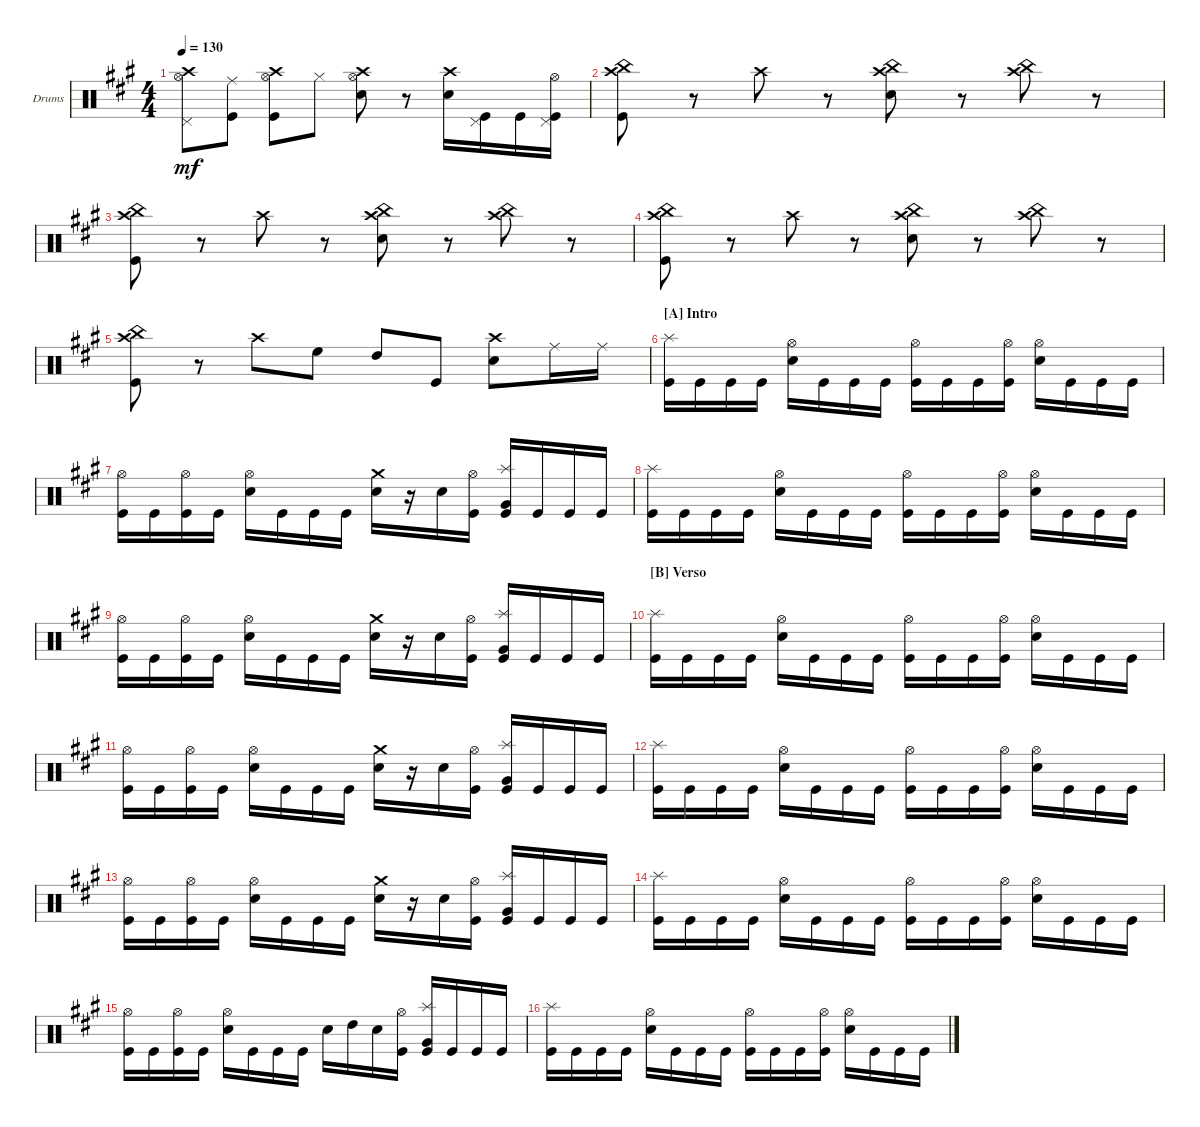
\defaultSystemsLayout 4
\bracketExtendMode groupsimilarinstruments
\firstSystemTrackNameOrientation horizontal
\otherSystemsTrackNameOrientation horizontal
\track ("Bateria" "Drums") {instrument percussion}
\staff {score}
\articulation defaults
\ts (4 4)
\tempo 130
\clef neutral
\ks a
("Pedal Hi-Hat (hit)" "Hi-Hat (open)" "Crash high (hit)").8{dy mf} ("Kick (hit)" "Ride (middle)").8 ("Kick (hit)" "Hi-Hat (open)" "Crash high (hit)").8 "Hi-Hat (closed)".8 ("Snare (hit) 2" "Hi-Hat (open)" "Crash high (hit)").8 r.8 ("Crash high (hit)" "Snare (hit) 2").16 ("Kick (hit)" "Pedal Hi-Hat (hit)").16 "Kick (hit)".16 ("Hi-Hat (open)" "Kick (hit)" "Pedal Hi-Hat (hit)").16 |
("China (hit)" "Kick (hit)" "Crash high (hit)").8 r.8 "Crash high (hit)".8 r.8 ("China (hit)" "Crash high (hit)" "Snare (hit) 2").8 r.8 ("China (hit)" "Crash high (hit)").8 r.8 |
("China (hit)" "Kick (hit)" "Crash high (hit)").8 r.8 "Crash high (hit)".8 r.8 ("China (hit)" "Crash high (hit)" "Snare (hit) 2").8 r.8 ("China (hit)" "Crash high (hit)").8 r.8 |
("China (hit)" "Kick (hit)" "Crash high (hit)").8 r.8 "Crash high (hit)".8 r.8 ("China (hit)" "Crash high (hit)" "Snare (hit) 2").8 r.8 ("China (hit)" "Crash high (hit)").8 r.8 |
("China (hit)" "Kick (hit)" "Crash high (hit)").8 r.8 "Crash high (hit)".8 "High Floor Tom (hit)".8 "High Tom (hit)".8 "Kick (hit)".8 ("Snare (hit) 2" "Crash high (hit)").8 "Ride (middle)".16 "Ride (middle)".16 |
\section ("A" "Intro")
("Kick (hit)" "Splash (hit)").16 "Kick (hit)".16 "Kick (hit)".16 "Kick (hit)".16 ("Snare (hit) 2" "Hi-Hat (open)").16 "Kick (hit)".16 "Kick (hit)".16 "Kick (hit)".16 ("Kick (hit)" "Hi-Hat (open)").16 "Kick (hit)".16 "Kick (hit)".16 ("Kick (hit)" "Hi-Hat (open)").16 ("Snare (hit) 2" "Hi-Hat (open)").16 "Kick (hit)".16 "Kick (hit)".16 "Kick (hit)".16 |
("Kick (hit)" "Hi-Hat (open)").16 "Kick (hit)".16 ("Kick (hit)" "Hi-Hat (open)").16 "Kick (hit)".16 ("Snare (hit) 2" "Hi-Hat (open)").16 "Kick (hit)".16 "Kick (hit)".16 "Kick (hit)".16 ("Snare (hit) 2" "Crash medium (hit)").16 r.16 "Snare (hit) 2".16 ("Kick (hit)" "Hi-Hat (open)").16 ("Very Low Tom (hit)" "Splash (hit)" "Kick (hit)").16 "Kick (hit)".16 "Kick (hit)".16 "Kick (hit)".16 |
("Kick (hit)" "Splash (hit)").16 "Kick (hit)".16 "Kick (hit)".16 "Kick (hit)".16 ("Snare (hit) 2" "Hi-Hat (open)").16 "Kick (hit)".16 "Kick (hit)".16 "Kick (hit)".16 ("Kick (hit)" "Hi-Hat (open)").16 "Kick (hit)".16 "Kick (hit)".16 ("Kick (hit)" "Hi-Hat (open)").16 ("Snare (hit) 2" "Hi-Hat (open)").16 "Kick (hit)".16 "Kick (hit)".16 "Kick (hit)".16 |
("Kick (hit)" "Hi-Hat (open)").16 "Kick (hit)".16 ("Kick (hit)" "Hi-Hat (open)").16 "Kick (hit)".16 ("Snare (hit) 2" "Hi-Hat (open)").16 "Kick (hit)".16 "Kick (hit)".16 "Kick (hit)".16 ("Snare (hit) 2" "Crash medium (hit)").16 r.16 "Snare (hit) 2".16 ("Kick (hit)" "Hi-Hat (open)").16 ("Very Low Tom (hit)" "Splash (hit)" "Kick (hit)").16 "Kick (hit)".16 "Kick (hit)".16 "Kick (hit)".16 |
\section ("B" "Verso")
("Kick (hit)" "Splash (hit)").16 "Kick (hit)".16 "Kick (hit)".16 "Kick (hit)".16 ("Snare (hit) 2" "Hi-Hat (open)").16 "Kick (hit)".16 "Kick (hit)".16 "Kick (hit)".16 ("Kick (hit)" "Hi-Hat (open)").16 "Kick (hit)".16 "Kick (hit)".16 ("Kick (hit)" "Hi-Hat (open)").16 ("Snare (hit) 2" "Hi-Hat (open)").16 "Kick (hit)".16 "Kick (hit)".16 "Kick (hit)".16 |
("Kick (hit)" "Hi-Hat (open)").16 "Kick (hit)".16 ("Kick (hit)" "Hi-Hat (open)").16 "Kick (hit)".16 ("Snare (hit) 2" "Hi-Hat (open)").16 "Kick (hit)".16 "Kick (hit)".16 "Kick (hit)".16 ("Snare (hit) 2" "Crash medium (hit)").16 r.16 "Snare (hit) 2".16 ("Kick (hit)" "Hi-Hat (open)").16 ("Very Low Tom (hit)" "Splash (hit)" "Kick (hit)").16 "Kick (hit)".16 "Kick (hit)".16 "Kick (hit)".16 |
("Kick (hit)" "Splash (hit)").16 "Kick (hit)".16 "Kick (hit)".16 "Kick (hit)".16 ("Snare (hit) 2" "Hi-Hat (open)").16 "Kick (hit)".16 "Kick (hit)".16 "Kick (hit)".16 ("Kick (hit)" "Hi-Hat (open)").16 "Kick (hit)".16 "Kick (hit)".16 ("Kick (hit)" "Hi-Hat (open)").16 ("Snare (hit) 2" "Hi-Hat (open)").16 "Kick (hit)".16 "Kick (hit)".16 "Kick (hit)".16 |
("Kick (hit)" "Hi-Hat (open)").16 "Kick (hit)".16 ("Kick (hit)" "Hi-Hat (open)").16 "Kick (hit)".16 ("Snare (hit) 2" "Hi-Hat (open)").16 "Kick (hit)".16 "Kick (hit)".16 "Kick (hit)".16 ("Snare (hit) 2" "Crash medium (hit)").16 r.16 "Snare (hit) 2".16 ("Kick (hit)" "Hi-Hat (open)").16 ("Very Low Tom (hit)" "Splash (hit)" "Kick (hit)").16 "Kick (hit)".16 "Kick (hit)".16 "Kick (hit)".16 |
("Kick (hit)" "Splash (hit)").16 "Kick (hit)".16 "Kick (hit)".16 "Kick (hit)".16 ("Snare (hit) 2" "Hi-Hat (open)").16 "Kick (hit)".16 "Kick (hit)".16 "Kick (hit)".16 ("Kick (hit)" "Hi-Hat (open)").16 "Kick (hit)".16 "Kick (hit)".16 ("Kick (hit)" "Hi-Hat (open)").16 ("Snare (hit) 2" "Hi-Hat (open)").16 "Kick (hit)".16 "Kick (hit)".16 "Kick (hit)".16 |
("Kick (hit)" "Hi-Hat (open)").16 "Kick (hit)".16 ("Kick (hit)" "Hi-Hat (open)").16 "Kick (hit)".16 ("Snare (hit) 2" "Hi-Hat (open)").16 "Kick (hit)".16 "Kick (hit)".16 "Kick (hit)".16 "Snare (hit) 2".16 "High Tom (hit)".16 "Snare (hit) 2".16 ("Kick (hit)" "Hi-Hat (open)").16 ("Very Low Tom (hit)" "Splash (hit)" "Kick (hit)").16 "Kick (hit)".16 "Kick (hit)".16 "Kick (hit)".16 |
("Kick (hit)" "Splash (hit)").16 "Kick (hit)".16 "Kick (hit)".16 "Kick (hit)".16 ("Snare (hit) 2" "Hi-Hat (open)").16 "Kick (hit)".16 "Kick (hit)".16 "Kick (hit)".16 ("Kick (hit)" "Hi-Hat (open)").16 "Kick (hit)".16 "Kick (hit)".16 ("Kick (hit)" "Hi-Hat (open)").16 ("Snare (hit) 2" "Hi-Hat (open)").16 "Kick (hit)".16 "Kick (hit)".16 "Kick (hit)".16
